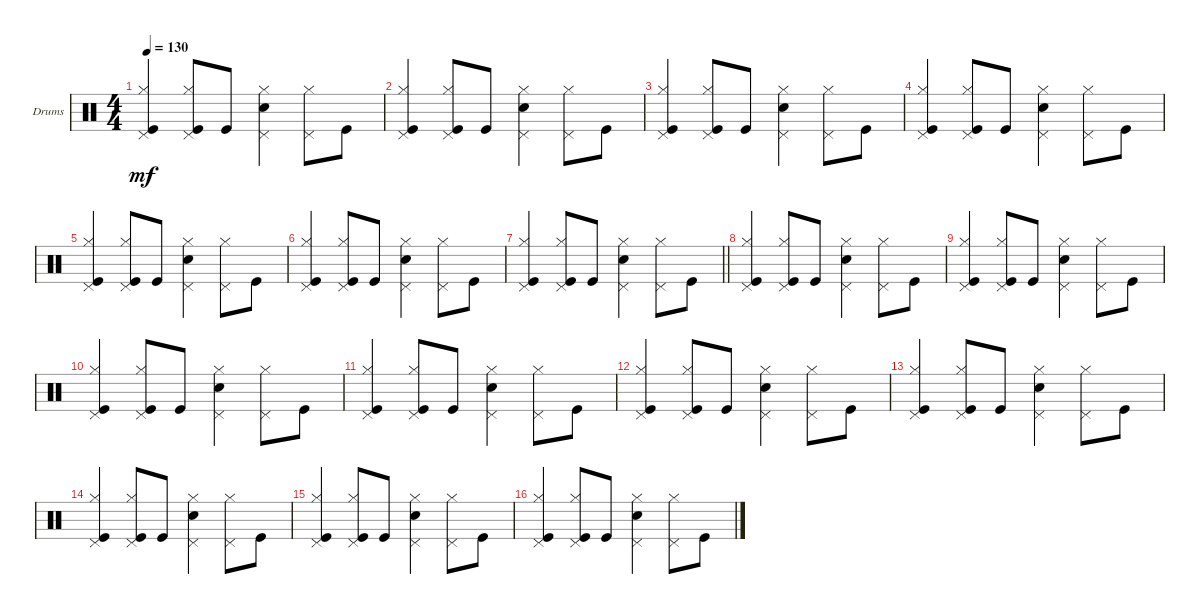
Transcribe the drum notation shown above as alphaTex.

\defaultSystemsLayout 4
\bracketExtendMode groupsimilarinstruments
\firstSystemTrackNameOrientation horizontal
\otherSystemsTrackNameOrientation horizontal
\chordDiagramsInScore
\track ("Drumkit" "Drums") {instrument percussion}
\staff {score}
\articulation defaults
\ts (4 4)
\tempo 130
\clef neutral
\ks c
("Kick (hit)" "Hi-Hat (closed)" "Pedal Hi-Hat (hit)").4{dy mf} ("Kick (hit)" "Hi-Hat (closed)" "Pedal Hi-Hat (hit)").8 "Kick (hit)".8 ("Snare (hit) 2" "Hi-Hat (closed)" "Pedal Hi-Hat (hit)").4 ("Pedal Hi-Hat (hit)" "Hi-Hat (closed)").8 "Kick (hit)".8 |
("Kick (hit)" "Hi-Hat (closed)" "Pedal Hi-Hat (hit)").4 ("Kick (hit)" "Hi-Hat (closed)" "Pedal Hi-Hat (hit)").8 "Kick (hit)".8 ("Snare (hit) 2" "Hi-Hat (closed)" "Pedal Hi-Hat (hit)").4 ("Pedal Hi-Hat (hit)" "Hi-Hat (closed)").8 "Kick (hit)".8 |
("Kick (hit)" "Hi-Hat (closed)" "Pedal Hi-Hat (hit)").4 ("Kick (hit)" "Hi-Hat (closed)" "Pedal Hi-Hat (hit)").8 "Kick (hit)".8 ("Snare (hit) 2" "Hi-Hat (closed)" "Pedal Hi-Hat (hit)").4 ("Pedal Hi-Hat (hit)" "Hi-Hat (closed)").8 "Kick (hit)".8 |
("Kick (hit)" "Hi-Hat (closed)" "Pedal Hi-Hat (hit)").4 ("Kick (hit)" "Hi-Hat (closed)" "Pedal Hi-Hat (hit)").8 "Kick (hit)".8 ("Snare (hit) 2" "Hi-Hat (closed)" "Pedal Hi-Hat (hit)").4 ("Pedal Hi-Hat (hit)" "Hi-Hat (closed)").8 "Kick (hit)".8 |
("Kick (hit)" "Hi-Hat (closed)" "Pedal Hi-Hat (hit)").4 ("Kick (hit)" "Hi-Hat (closed)" "Pedal Hi-Hat (hit)").8 "Kick (hit)".8 ("Snare (hit) 2" "Hi-Hat (closed)" "Pedal Hi-Hat (hit)").4 ("Pedal Hi-Hat (hit)" "Hi-Hat (closed)").8 "Kick (hit)".8 |
("Kick (hit)" "Hi-Hat (closed)" "Pedal Hi-Hat (hit)").4 ("Kick (hit)" "Hi-Hat (closed)" "Pedal Hi-Hat (hit)").8 "Kick (hit)".8 ("Snare (hit) 2" "Hi-Hat (closed)" "Pedal Hi-Hat (hit)").4 ("Pedal Hi-Hat (hit)" "Hi-Hat (closed)").8 "Kick (hit)".8 |
\barLineRight lightlight
("Kick (hit)" "Hi-Hat (closed)" "Pedal Hi-Hat (hit)").4 ("Kick (hit)" "Hi-Hat (closed)" "Pedal Hi-Hat (hit)").8 "Kick (hit)".8 ("Snare (hit) 2" "Hi-Hat (closed)" "Pedal Hi-Hat (hit)").4 ("Pedal Hi-Hat (hit)" "Hi-Hat (closed)").8 "Kick (hit)".8 |
("Kick (hit)" "Hi-Hat (closed)" "Pedal Hi-Hat (hit)").4 ("Kick (hit)" "Hi-Hat (closed)" "Pedal Hi-Hat (hit)").8 "Kick (hit)".8 ("Snare (hit) 2" "Hi-Hat (closed)" "Pedal Hi-Hat (hit)").4 ("Pedal Hi-Hat (hit)" "Hi-Hat (closed)").8 "Kick (hit)".8 |
("Kick (hit)" "Hi-Hat (closed)" "Pedal Hi-Hat (hit)").4 ("Kick (hit)" "Hi-Hat (closed)" "Pedal Hi-Hat (hit)").8 "Kick (hit)".8 ("Snare (hit) 2" "Hi-Hat (closed)" "Pedal Hi-Hat (hit)").4 ("Pedal Hi-Hat (hit)" "Hi-Hat (closed)").8 "Kick (hit)".8 |
("Kick (hit)" "Hi-Hat (closed)" "Pedal Hi-Hat (hit)").4 ("Kick (hit)" "Hi-Hat (closed)" "Pedal Hi-Hat (hit)").8 "Kick (hit)".8 ("Snare (hit) 2" "Hi-Hat (closed)" "Pedal Hi-Hat (hit)").4 ("Pedal Hi-Hat (hit)" "Hi-Hat (closed)").8 "Kick (hit)".8 |
("Kick (hit)" "Hi-Hat (closed)" "Pedal Hi-Hat (hit)").4 ("Kick (hit)" "Hi-Hat (closed)" "Pedal Hi-Hat (hit)").8 "Kick (hit)".8 ("Snare (hit) 2" "Hi-Hat (closed)" "Pedal Hi-Hat (hit)").4 ("Pedal Hi-Hat (hit)" "Hi-Hat (closed)").8 "Kick (hit)".8 |
("Kick (hit)" "Hi-Hat (closed)" "Pedal Hi-Hat (hit)").4 ("Kick (hit)" "Hi-Hat (closed)" "Pedal Hi-Hat (hit)").8 "Kick (hit)".8 ("Snare (hit) 2" "Hi-Hat (closed)" "Pedal Hi-Hat (hit)").4 ("Pedal Hi-Hat (hit)" "Hi-Hat (closed)").8 "Kick (hit)".8 |
("Kick (hit)" "Hi-Hat (closed)" "Pedal Hi-Hat (hit)").4 ("Kick (hit)" "Hi-Hat (closed)" "Pedal Hi-Hat (hit)").8 "Kick (hit)".8 ("Snare (hit) 2" "Hi-Hat (closed)" "Pedal Hi-Hat (hit)").4 ("Pedal Hi-Hat (hit)" "Hi-Hat (closed)").8 "Kick (hit)".8 |
("Kick (hit)" "Hi-Hat (closed)" "Pedal Hi-Hat (hit)").4 ("Kick (hit)" "Hi-Hat (closed)" "Pedal Hi-Hat (hit)").8 "Kick (hit)".8 ("Snare (hit) 2" "Hi-Hat (closed)" "Pedal Hi-Hat (hit)").4 ("Pedal Hi-Hat (hit)" "Hi-Hat (closed)").8 "Kick (hit)".8 |
("Kick (hit)" "Hi-Hat (closed)" "Pedal Hi-Hat (hit)").4 ("Kick (hit)" "Hi-Hat (closed)" "Pedal Hi-Hat (hit)").8 "Kick (hit)".8 ("Snare (hit) 2" "Hi-Hat (closed)" "Pedal Hi-Hat (hit)").4 ("Pedal Hi-Hat (hit)" "Hi-Hat (closed)").8 "Kick (hit)".8 |
("Kick (hit)" "Hi-Hat (closed)" "Pedal Hi-Hat (hit)").4 ("Kick (hit)" "Hi-Hat (closed)" "Pedal Hi-Hat (hit)").8 "Kick (hit)".8 ("Snare (hit) 2" "Hi-Hat (closed)" "Pedal Hi-Hat (hit)").4 ("Pedal Hi-Hat (hit)" "Hi-Hat (closed)").8 "Kick (hit)".8
